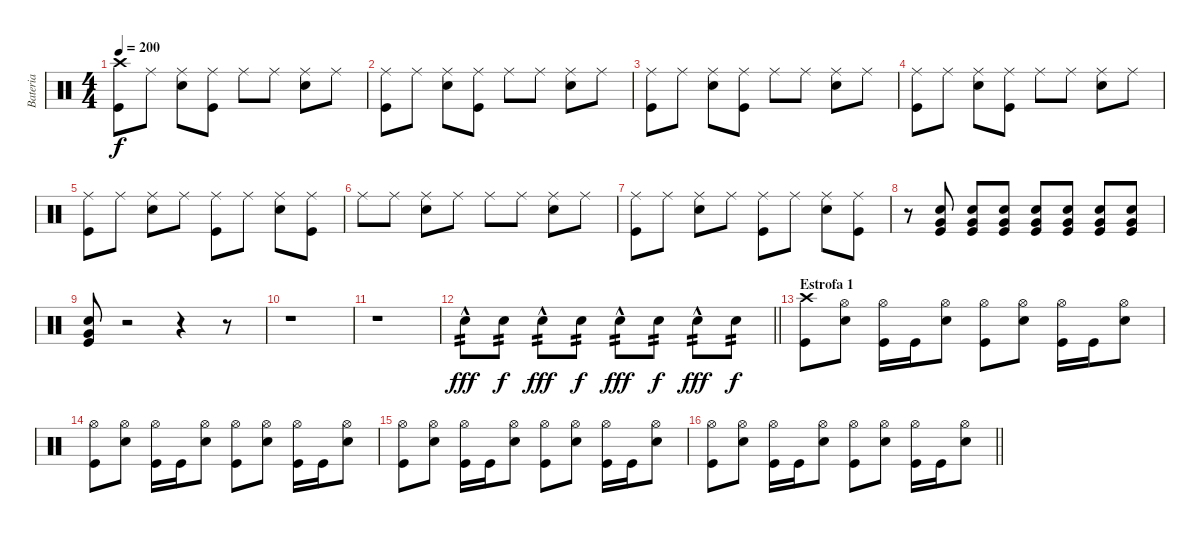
\track ("Bateria" "Bateria") {instrument percussion}
\staff {score}
\articulation defaults
\ts (4 4)
\tempo 200
\clef neutral
\ks c
("Crash high (hit)" "Kick (hit)").8{dy f} "Ride (middle)".8 ("Ride (middle)" "Snare (hit) 2").8 ("Ride (middle)" "Kick (hit)").8 "Ride (middle)".8 "Ride (middle)".8 ("Ride (middle)" "Snare (hit) 2").8 "Ride (middle)".8 |
("Ride (middle)" "Kick (hit)").8 "Ride (middle)".8 ("Ride (middle)" "Snare (hit) 2").8 ("Ride (middle)" "Kick (hit)").8 "Ride (middle)".8 "Ride (middle)".8 ("Ride (middle)" "Snare (hit) 2").8 "Ride (middle)".8 |
("Ride (middle)" "Kick (hit)").8 "Ride (middle)".8 ("Ride (middle)" "Snare (hit) 2").8 ("Ride (middle)" "Kick (hit)").8 "Ride (middle)".8 "Ride (middle)".8 ("Ride (middle)" "Snare (hit) 2").8 "Ride (middle)".8 |
("Ride (middle)" "Kick (hit)").8 "Ride (middle)".8 ("Ride (middle)" "Snare (hit) 2").8 ("Ride (middle)" "Kick (hit)").8 "Ride (middle)".8 "Ride (middle)".8 ("Ride (middle)" "Snare (hit) 2").8 "Ride (middle)".8 |
("Ride (middle)" "Kick (hit)").8 "Ride (middle)".8 ("Ride (middle)" "Snare (hit) 2").8 "Ride (middle)".8 ("Ride (middle)" "Kick (hit)").8 "Ride (middle)".8 ("Ride (middle)" "Snare (hit) 2").8 ("Ride (middle)" "Kick (hit)").8 |
"Ride (middle)".8 "Ride (middle)".8 ("Ride (middle)" "Snare (hit) 2").8 "Ride (middle)".8 "Ride (middle)".8 "Ride (middle)".8 ("Ride (middle)" "Snare (hit) 2").8 "Ride (middle)".8 |
("Ride (middle)" "Kick (hit)").8 "Ride (middle)".8 ("Ride (middle)" "Snare (hit) 2").8 "Ride (middle)".8 ("Ride (middle)" "Kick (hit)").8 "Ride (middle)".8 ("Ride (middle)" "Snare (hit) 2").8 ("Ride (middle)" "Kick (hit)").8 |
r.8 ("Very Low Tom (hit)" "Snare (hit) 2" "Kick (hit)").8 ("Very Low Tom (hit)" "Snare (hit) 2" "Kick (hit)").8 ("Very Low Tom (hit)" "Snare (hit) 2" "Kick (hit)").8 ("Very Low Tom (hit)" "Snare (hit) 2" "Kick (hit)").8 ("Very Low Tom (hit)" "Snare (hit) 2" "Kick (hit)").8 ("Very Low Tom (hit)" "Snare (hit) 2" "Kick (hit)").8 ("Very Low Tom (hit)" "Snare (hit) 2" "Kick (hit)").8 |
("Very Low Tom (hit)" "Snare (hit) 2" "Kick (hit)").8 r.2 r.4 r.8 |
r.1 |
r.1 |
\barLineRight lightlight "Snare (hit) 2"{hac}.8{tp 2 dy fff} "Snare (hit) 2".8{tp 2 dy f} "Snare (hit) 2"{hac}.8{tp 2 dy fff} "Snare (hit) 2".8{tp 2 dy f} "Snare (hit) 2"{hac}.8{tp 2 dy fff} "Snare (hit) 2".8{tp 2 dy f} "Snare (hit) 2"{hac}.8{tp 2 dy fff} "Snare (hit) 2".8{tp 2 dy f}
|
\section ("" "Estrofa 1")
("Crash high (hit)" "Kick (hit)").8 ("Hi-Hat (open)" "Snare (hit) 2").8 ("Hi-Hat (open)" "Kick (hit)").16 "Kick (hit)".16 ("Hi-Hat (open)" "Snare (hit) 2").8 ("Hi-Hat (open)" "Kick (hit)").8 ("Hi-Hat (open)" "Snare (hit) 2").8 ("Hi-Hat (open)" "Kick (hit)").16 "Kick (hit)".16 ("Hi-Hat (open)" "Snare (hit) 2").8 |
("Hi-Hat (open)" "Kick (hit)").8 ("Hi-Hat (open)" "Snare (hit) 2").8 ("Hi-Hat (open)" "Kick (hit)").16 "Kick (hit)".16 ("Hi-Hat (open)" "Snare (hit) 2").8 ("Hi-Hat (open)" "Kick (hit)").8 ("Hi-Hat (open)" "Snare (hit) 2").8 ("Hi-Hat (open)" "Kick (hit)").16 "Kick (hit)".16 ("Hi-Hat (open)" "Snare (hit) 2").8 |
("Hi-Hat (open)" "Kick (hit)").8 ("Hi-Hat (open)" "Snare (hit) 2").8 ("Hi-Hat (open)" "Kick (hit)").16 "Kick (hit)".16 ("Hi-Hat (open)" "Snare (hit) 2").8 ("Hi-Hat (open)" "Kick (hit)").8 ("Hi-Hat (open)" "Snare (hit) 2").8 ("Hi-Hat (open)" "Kick (hit)").16 "Kick (hit)".16 ("Hi-Hat (open)" "Snare (hit) 2").8 |
\barLineRight lightlight
("Hi-Hat (open)" "Kick (hit)").8 ("Hi-Hat (open)" "Snare (hit) 2").8 ("Hi-Hat (open)" "Kick (hit)").16 "Kick (hit)".16 ("Hi-Hat (open)" "Snare (hit) 2").8 ("Hi-Hat (open)" "Kick (hit)").8 ("Hi-Hat (open)" "Snare (hit) 2").8 ("Hi-Hat (open)" "Kick (hit)").16 "Kick (hit)".16 ("Hi-Hat (open)" "Snare (hit) 2").8
